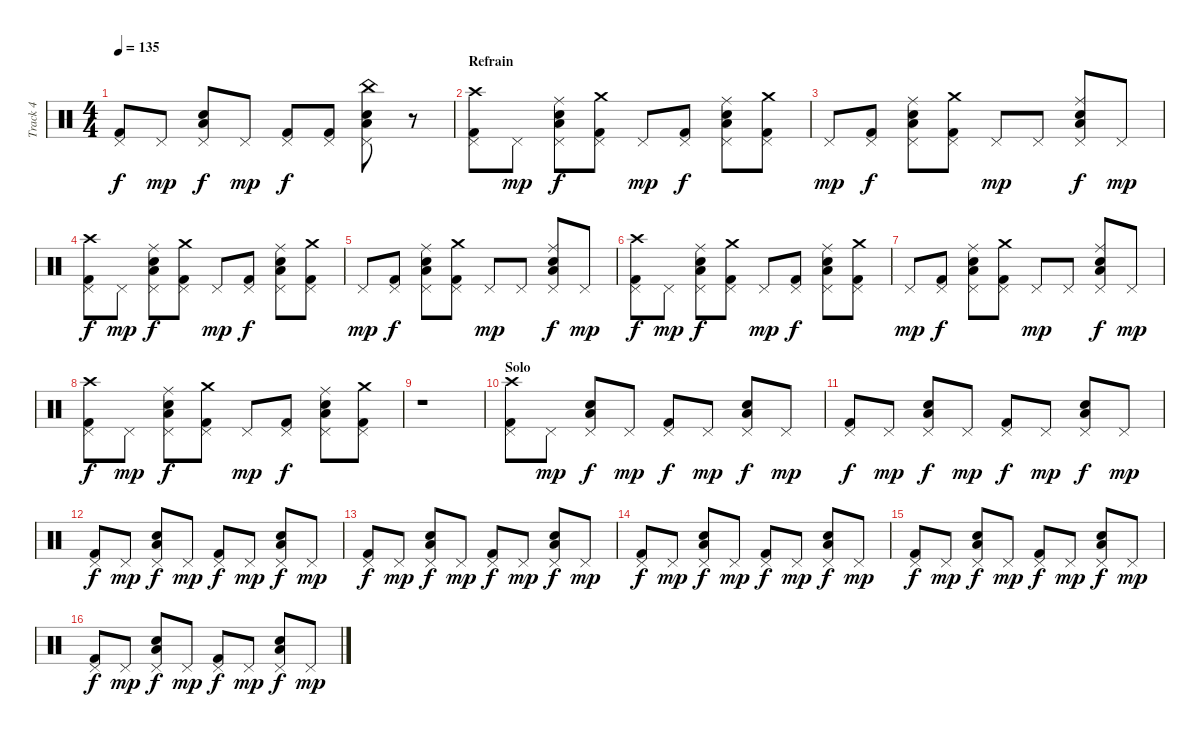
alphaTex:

\track ("Track 4" "Track 4") {instrument percussion}
\staff {score}
\articulation defaults
\ts (4 4)
\tempo 135
\clef neutral
\ks c
("Pedal Hi-Hat (hit)" "Kick (hit) 2").8{dy f} "Pedal Hi-Hat (hit)".8{dy mp} ("Pedal Hi-Hat (hit)" "Low Tom (hit)" "Electric Snare (hit)").8{dy f} "Pedal Hi-Hat (hit)".8{dy mp} ("Pedal Hi-Hat (hit)" "Kick (hit) 2").8{dy f} ("Pedal Hi-Hat (hit)" "Kick (hit) 2").8 ("Pedal Hi-Hat (hit)" "Low Tom (hit)" "Electric Snare (hit)" "China (hit)").8 r.8 |
\section ("" "Refrain")
("Pedal Hi-Hat (hit)" "Kick (hit) 2" "Crash high (hit)").8 "Pedal Hi-Hat (hit)".8{dy mp} ("Pedal Hi-Hat (hit)" "Low Tom (hit)" "Electric Snare (hit)" "Ride (middle)").8{dy f} ("Pedal Hi-Hat (hit)" "Kick (hit) 2" "Crash medium (hit)").8 "Pedal Hi-Hat (hit)".8{dy mp} ("Pedal Hi-Hat (hit)" "Kick (hit) 2").8{dy f} ("Pedal Hi-Hat (hit)" "Low Tom (hit)" "Electric Snare (hit)" "Ride (middle)").8 ("Pedal Hi-Hat (hit)" "Kick (hit) 2" "Crash medium (hit)").8 |
"Pedal Hi-Hat (hit)".8{dy mp} ("Pedal Hi-Hat (hit)" "Kick (hit) 2").8{dy f} ("Pedal Hi-Hat (hit)" "Low Tom (hit)" "Electric Snare (hit)" "Ride (middle)").8 ("Pedal Hi-Hat (hit)" "Kick (hit) 2" "Crash medium (hit)").8 "Pedal Hi-Hat (hit)".8{dy mp} "Pedal Hi-Hat (hit)".8 ("Pedal Hi-Hat (hit)" "Low Tom (hit)" "Electric Snare (hit)" "Ride (middle)").8{dy f} "Pedal Hi-Hat (hit)".8{dy mp} |
("Pedal Hi-Hat (hit)" "Kick (hit) 2" "Crash high (hit)").8{dy f} "Pedal Hi-Hat (hit)".8{dy mp} ("Pedal Hi-Hat (hit)" "Low Tom (hit)" "Electric Snare (hit)" "Ride (middle)").8{dy f} ("Pedal Hi-Hat (hit)" "Kick (hit) 2" "Crash medium (hit)").8 "Pedal Hi-Hat (hit)".8{dy mp} ("Pedal Hi-Hat (hit)" "Kick (hit) 2").8{dy f} ("Pedal Hi-Hat (hit)" "Low Tom (hit)" "Electric Snare (hit)" "Ride (middle)").8 ("Pedal Hi-Hat (hit)" "Kick (hit) 2" "Crash medium (hit)").8 |
"Pedal Hi-Hat (hit)".8{dy mp} ("Pedal Hi-Hat (hit)" "Kick (hit) 2").8{dy f} ("Pedal Hi-Hat (hit)" "Low Tom (hit)" "Electric Snare (hit)" "Ride (middle)").8 ("Pedal Hi-Hat (hit)" "Kick (hit) 2" "Crash medium (hit)").8 "Pedal Hi-Hat (hit)".8{dy mp} "Pedal Hi-Hat (hit)".8 ("Pedal Hi-Hat (hit)" "Low Tom (hit)" "Electric Snare (hit)" "Ride (middle)").8{dy f} "Pedal Hi-Hat (hit)".8{dy mp} |
("Pedal Hi-Hat (hit)" "Kick (hit) 2" "Crash high (hit)").8{dy f} "Pedal Hi-Hat (hit)".8{dy mp} ("Pedal Hi-Hat (hit)" "Low Tom (hit)" "Electric Snare (hit)" "Ride (middle)").8{dy f} ("Pedal Hi-Hat (hit)" "Kick (hit) 2" "Crash medium (hit)").8 "Pedal Hi-Hat (hit)".8{dy mp} ("Pedal Hi-Hat (hit)" "Kick (hit) 2").8{dy f} ("Pedal Hi-Hat (hit)" "Low Tom (hit)" "Electric Snare (hit)" "Ride (middle)").8 ("Pedal Hi-Hat (hit)" "Kick (hit) 2" "Crash medium (hit)").8 |
"Pedal Hi-Hat (hit)".8{dy mp} ("Pedal Hi-Hat (hit)" "Kick (hit) 2").8{dy f} ("Pedal Hi-Hat (hit)" "Low Tom (hit)" "Electric Snare (hit)" "Ride (middle)").8 ("Pedal Hi-Hat (hit)" "Kick (hit) 2" "Crash medium (hit)").8 "Pedal Hi-Hat (hit)".8{dy mp} "Pedal Hi-Hat (hit)".8 ("Pedal Hi-Hat (hit)" "Low Tom (hit)" "Electric Snare (hit)" "Ride (middle)").8{dy f} "Pedal Hi-Hat (hit)".8{dy mp} |
("Pedal Hi-Hat (hit)" "Kick (hit) 2" "Crash high (hit)").8{dy f} "Pedal Hi-Hat (hit)".8{dy mp} ("Pedal Hi-Hat (hit)" "Low Tom (hit)" "Electric Snare (hit)" "Ride (middle)").8{dy f} ("Pedal Hi-Hat (hit)" "Kick (hit) 2" "Crash medium (hit)").8 "Pedal Hi-Hat (hit)".8{dy mp} ("Pedal Hi-Hat (hit)" "Kick (hit) 2").8{dy f} ("Pedal Hi-Hat (hit)" "Low Tom (hit)" "Electric Snare (hit)" "Ride (middle)").8 ("Pedal Hi-Hat (hit)" "Kick (hit) 2" "Crash medium (hit)").8 |
r.1 |
\section ("" "Solo")
("Pedal Hi-Hat (hit)" "Kick (hit) 2" "Crash high (hit)").8 "Pedal Hi-Hat (hit)".8{dy mp} ("Pedal Hi-Hat (hit)" "Low Tom (hit)" "Electric Snare (hit)").8{dy f} "Pedal Hi-Hat (hit)".8{dy mp} ("Pedal Hi-Hat (hit)" "Kick (hit) 2").8{dy f} "Pedal Hi-Hat (hit)".8{dy mp} ("Pedal Hi-Hat (hit)" "Low Tom (hit)" "Electric Snare (hit)").8{dy f} "Pedal Hi-Hat (hit)".8{dy mp} |
("Pedal Hi-Hat (hit)" "Kick (hit) 2").8{dy f} "Pedal Hi-Hat (hit)".8{dy mp} ("Pedal Hi-Hat (hit)" "Low Tom (hit)" "Electric Snare (hit)").8{dy f} "Pedal Hi-Hat (hit)".8{dy mp} ("Pedal Hi-Hat (hit)" "Kick (hit) 2").8{dy f} "Pedal Hi-Hat (hit)".8{dy mp} ("Pedal Hi-Hat (hit)" "Low Tom (hit)" "Electric Snare (hit)").8{dy f} "Pedal Hi-Hat (hit)".8{dy mp} |
("Pedal Hi-Hat (hit)" "Kick (hit) 2").8{dy f} "Pedal Hi-Hat (hit)".8{dy mp} ("Pedal Hi-Hat (hit)" "Low Tom (hit)" "Electric Snare (hit)").8{dy f} "Pedal Hi-Hat (hit)".8{dy mp} ("Pedal Hi-Hat (hit)" "Kick (hit) 2").8{dy f} "Pedal Hi-Hat (hit)".8{dy mp} ("Pedal Hi-Hat (hit)" "Low Tom (hit)" "Electric Snare (hit)").8{dy f} "Pedal Hi-Hat (hit)".8{dy mp} |
("Pedal Hi-Hat (hit)" "Kick (hit) 2").8{dy f} "Pedal Hi-Hat (hit)".8{dy mp} ("Pedal Hi-Hat (hit)" "Low Tom (hit)" "Electric Snare (hit)").8{dy f} "Pedal Hi-Hat (hit)".8{dy mp} ("Pedal Hi-Hat (hit)" "Kick (hit) 2").8{dy f} "Pedal Hi-Hat (hit)".8{dy mp} ("Pedal Hi-Hat (hit)" "Low Tom (hit)" "Electric Snare (hit)").8{dy f} "Pedal Hi-Hat (hit)".8{dy mp} |
("Pedal Hi-Hat (hit)" "Kick (hit) 2").8{dy f} "Pedal Hi-Hat (hit)".8{dy mp} ("Pedal Hi-Hat (hit)" "Low Tom (hit)" "Electric Snare (hit)").8{dy f} "Pedal Hi-Hat (hit)".8{dy mp} ("Pedal Hi-Hat (hit)" "Kick (hit) 2").8{dy f} "Pedal Hi-Hat (hit)".8{dy mp} ("Pedal Hi-Hat (hit)" "Low Tom (hit)" "Electric Snare (hit)").8{dy f} "Pedal Hi-Hat (hit)".8{dy mp} |
("Pedal Hi-Hat (hit)" "Kick (hit) 2").8{dy f} "Pedal Hi-Hat (hit)".8{dy mp} ("Pedal Hi-Hat (hit)" "Low Tom (hit)" "Electric Snare (hit)").8{dy f} "Pedal Hi-Hat (hit)".8{dy mp} ("Pedal Hi-Hat (hit)" "Kick (hit) 2").8{dy f} "Pedal Hi-Hat (hit)".8{dy mp} ("Pedal Hi-Hat (hit)" "Low Tom (hit)" "Electric Snare (hit)").8{dy f} "Pedal Hi-Hat (hit)".8{dy mp} |
("Pedal Hi-Hat (hit)" "Kick (hit) 2").8{dy f} "Pedal Hi-Hat (hit)".8{dy mp} ("Pedal Hi-Hat (hit)" "Low Tom (hit)" "Electric Snare (hit)").8{dy f} "Pedal Hi-Hat (hit)".8{dy mp} ("Pedal Hi-Hat (hit)" "Kick (hit) 2").8{dy f} "Pedal Hi-Hat (hit)".8{dy mp} ("Pedal Hi-Hat (hit)" "Low Tom (hit)" "Electric Snare (hit)").8{dy f} "Pedal Hi-Hat (hit)".8{dy mp}
